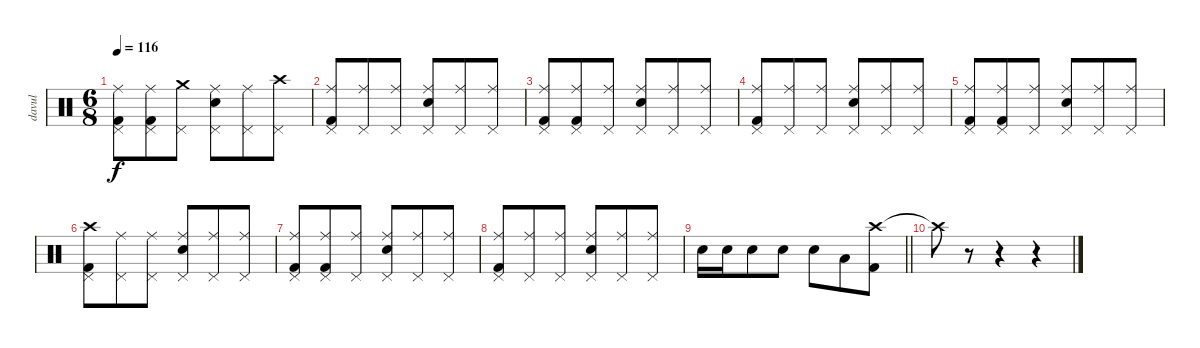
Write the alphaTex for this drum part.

\track ("davul" "davul") {instrument percussion}
\staff {score}
\articulation defaults
\ts (6 8)
\tempo 116
\clef neutral
\ks c
("Ride (middle)" "Kick (hit) 2" "Pedal Hi-Hat (hit)").8{dy f} ("Ride (middle)" "Kick (hit) 2" "Pedal Hi-Hat (hit)").8 ("Crash medium (hit)" "Pedal Hi-Hat (hit)").8 ("Ride (middle)" "Electric Snare (hit)" "Pedal Hi-Hat (hit)").8 ("Ride (middle)" "Pedal Hi-Hat (hit)").8 ("Crash high (hit)" "Pedal Hi-Hat (hit)").8 |
("Ride (middle)" "Kick (hit) 2" "Pedal Hi-Hat (hit)").8 ("Ride (middle)" "Pedal Hi-Hat (hit)").8 ("Ride (middle)" "Pedal Hi-Hat (hit)").8 ("Ride (middle)" "Electric Snare (hit)" "Pedal Hi-Hat (hit)").8 ("Ride (middle)" "Pedal Hi-Hat (hit)").8 ("Ride (middle)" "Pedal Hi-Hat (hit)").8 |
("Ride (middle)" "Kick (hit) 2" "Pedal Hi-Hat (hit)").8 ("Ride (middle)" "Kick (hit) 2" "Pedal Hi-Hat (hit)").8 ("Ride (middle)" "Pedal Hi-Hat (hit)").8 ("Ride (middle)" "Electric Snare (hit)" "Pedal Hi-Hat (hit)").8 ("Ride (middle)" "Pedal Hi-Hat (hit)").8 ("Ride (middle)" "Pedal Hi-Hat (hit)").8 |
("Ride (middle)" "Kick (hit) 2" "Pedal Hi-Hat (hit)").8 ("Ride (middle)" "Pedal Hi-Hat (hit)").8 ("Ride (middle)" "Pedal Hi-Hat (hit)").8 ("Ride (middle)" "Electric Snare (hit)" "Pedal Hi-Hat (hit)").8 ("Ride (middle)" "Pedal Hi-Hat (hit)").8 ("Ride (middle)" "Pedal Hi-Hat (hit)").8 |
("Ride (middle)" "Kick (hit) 2" "Pedal Hi-Hat (hit)").8 ("Ride (middle)" "Kick (hit) 2" "Pedal Hi-Hat (hit)").8 ("Ride (middle)" "Pedal Hi-Hat (hit)").8 ("Ride (middle)" "Electric Snare (hit)" "Pedal Hi-Hat (hit)").8 ("Ride (middle)" "Pedal Hi-Hat (hit)").8 ("Ride (middle)" "Pedal Hi-Hat (hit)").8 |
("Crash high (hit)" "Kick (hit) 2" "Pedal Hi-Hat (hit)").8 ("Ride (middle)" "Pedal Hi-Hat (hit)").8 ("Ride (middle)" "Pedal Hi-Hat (hit)").8 ("Ride (middle)" "Electric Snare (hit)" "Pedal Hi-Hat (hit)").8 ("Ride (middle)" "Pedal Hi-Hat (hit)").8 ("Ride (middle)" "Pedal Hi-Hat (hit)").8 |
("Ride (middle)" "Kick (hit) 2" "Pedal Hi-Hat (hit)").8 ("Ride (middle)" "Kick (hit) 2" "Pedal Hi-Hat (hit)").8 ("Ride (middle)" "Pedal Hi-Hat (hit)").8 ("Ride (middle)" "Electric Snare (hit)" "Pedal Hi-Hat (hit)").8 ("Ride (middle)" "Pedal Hi-Hat (hit)").8 ("Ride (middle)" "Pedal Hi-Hat (hit)").8 |
("Ride (middle)" "Kick (hit) 2" "Pedal Hi-Hat (hit)").8 ("Ride (middle)" "Pedal Hi-Hat (hit)").8 ("Ride (middle)" "Pedal Hi-Hat (hit)").8 ("Ride (middle)" "Electric Snare (hit)" "Pedal Hi-Hat (hit)").8 ("Ride (middle)" "Pedal Hi-Hat (hit)").8 ("Ride (middle)" "Pedal Hi-Hat (hit)").8 |
\barLineRight lightlight "Electric Snare (hit)".16 "Electric Snare (hit)".16 "Electric Snare (hit)".8 "Electric Snare (hit)".8 "Electric Snare (hit)".8 "Low Tom (hit)".8
("Crash high (hit)" "Kick (hit) 2").8 |
"Crash high (hit)"{t}.8 r.8 r.4 r.4
